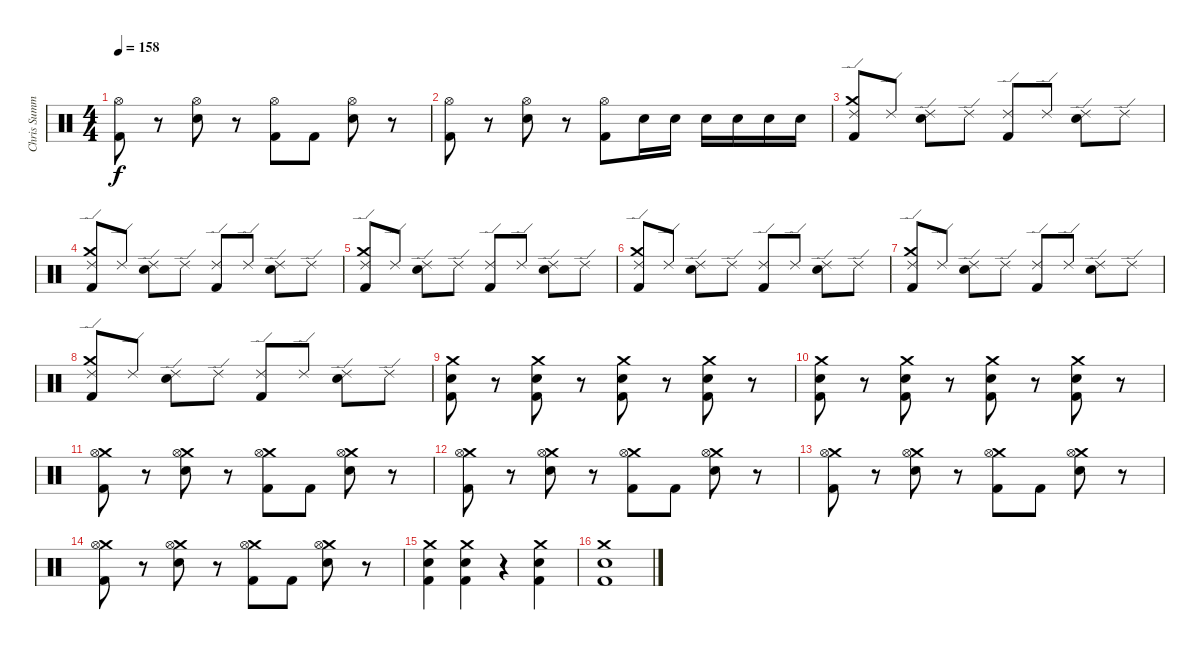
\track ("Chris Summers" "Chris Summ") {instrument percussion}
\staff {score}
\articulation defaults
\ts (4 4)
\tempo 158
\clef neutral
\ks c
("Hi-Hat (open)" "Kick (hit) 2").8{dy f} r.8 ("Hi-Hat (open)" "Electric Snare (hit)").8 r.8 ("Hi-Hat (open)" "Kick (hit) 2").8 "Kick (hit) 2".8 ("Hi-Hat (open)" "Electric Snare (hit)").8 r.8 |
("Hi-Hat (open)" "Kick (hit) 2").8 r.8 ("Hi-Hat (open)" "Electric Snare (hit)").8 r.8 ("Hi-Hat (open)" "Kick (hit) 2").8 "Electric Snare (hit)".16 "Electric Snare (hit)".16 "Electric Snare (hit)".16 "Electric Snare (hit)".16 "Electric Snare (hit)".16 "Electric Snare (hit)".16 |
("Crash medium (hit)" "Ride (edge) 2" "Kick (hit) 2").8 "Ride (edge) 2".8 ("Ride (edge) 2" "Electric Snare (hit)").8 "Ride (edge) 2".8 ("Ride (edge) 2" "Kick (hit) 2").8 "Ride (edge) 2".8 ("Ride (edge) 2" "Electric Snare (hit)").8 "Ride (edge) 2".8 |
("Crash medium (hit)" "Ride (edge) 2" "Kick (hit) 2").8 "Ride (edge) 2".8 ("Ride (edge) 2" "Electric Snare (hit)").8 "Ride (edge) 2".8 ("Ride (edge) 2" "Kick (hit) 2").8 "Ride (edge) 2".8 ("Ride (edge) 2" "Electric Snare (hit)").8 "Ride (edge) 2".8 |
("Crash medium (hit)" "Ride (edge) 2" "Kick (hit) 2").8 "Ride (edge) 2".8 ("Ride (edge) 2" "Electric Snare (hit)").8 "Ride (edge) 2".8 ("Ride (edge) 2" "Kick (hit) 2").8 "Ride (edge) 2".8 ("Ride (edge) 2" "Electric Snare (hit)").8 "Ride (edge) 2".8 |
("Crash medium (hit)" "Ride (edge) 2" "Kick (hit) 2").8 "Ride (edge) 2".8 ("Ride (edge) 2" "Electric Snare (hit)").8 "Ride (edge) 2".8 ("Ride (edge) 2" "Kick (hit) 2").8 "Ride (edge) 2".8 ("Ride (edge) 2" "Electric Snare (hit)").8 "Ride (edge) 2".8 |
("Crash medium (hit)" "Ride (edge) 2" "Kick (hit) 2").8 "Ride (edge) 2".8 ("Ride (edge) 2" "Electric Snare (hit)").8 "Ride (edge) 2".8 ("Ride (edge) 2" "Kick (hit) 2").8 "Ride (edge) 2".8 ("Ride (edge) 2" "Electric Snare (hit)").8 "Ride (edge) 2".8 |
("Crash medium (hit)" "Ride (edge) 2" "Kick (hit) 2").8 "Ride (edge) 2".8 ("Ride (edge) 2" "Electric Snare (hit)").8 "Ride (edge) 2".8 ("Ride (edge) 2" "Kick (hit) 2").8 "Ride (edge) 2".8 ("Ride (edge) 2" "Electric Snare (hit)").8 "Ride (edge) 2".8 |
("Kick (hit) 2" "Crash medium (hit)" "Electric Snare (hit)").8 r.8 ("Kick (hit) 2" "Crash medium (hit)" "Electric Snare (hit)").8 r.8 ("Kick (hit) 2" "Crash medium (hit)" "Electric Snare (hit)").8 r.8 ("Kick (hit) 2" "Crash medium (hit)" "Electric Snare (hit)").8 r.8 |
("Kick (hit) 2" "Crash medium (hit)" "Electric Snare (hit)").8 r.8 ("Kick (hit) 2" "Crash medium (hit)" "Electric Snare (hit)").8 r.8 ("Kick (hit) 2" "Crash medium (hit)" "Electric Snare (hit)").8 r.8 ("Kick (hit) 2" "Crash medium (hit)" "Electric Snare (hit)").8 r.8 |
("Crash medium (hit)" "Hi-Hat (open)" "Kick (hit) 2").8 r.8 ("Crash medium (hit)" "Hi-Hat (open)" "Electric Snare (hit)").8 r.8 ("Crash medium (hit)" "Hi-Hat (open)" "Kick (hit) 2").8 "Kick (hit) 2".8 ("Crash medium (hit)" "Hi-Hat (open)" "Electric Snare (hit)").8 r.8 |
("Crash medium (hit)" "Hi-Hat (open)" "Kick (hit) 2").8 r.8 ("Crash medium (hit)" "Hi-Hat (open)" "Electric Snare (hit)").8 r.8 ("Crash medium (hit)" "Hi-Hat (open)" "Kick (hit) 2").8 "Kick (hit) 2".8 ("Crash medium (hit)" "Hi-Hat (open)" "Electric Snare (hit)").8 r.8 |
("Crash medium (hit)" "Hi-Hat (open)" "Kick (hit) 2").8 r.8 ("Crash medium (hit)" "Hi-Hat (open)" "Electric Snare (hit)").8 r.8 ("Crash medium (hit)" "Hi-Hat (open)" "Kick (hit) 2").8 "Kick (hit) 2".8 ("Crash medium (hit)" "Hi-Hat (open)" "Electric Snare (hit)").8 r.8 |
("Crash medium (hit)" "Hi-Hat (open)" "Kick (hit) 2").8 r.8 ("Crash medium (hit)" "Hi-Hat (open)" "Electric Snare (hit)").8 r.8 ("Crash medium (hit)" "Hi-Hat (open)" "Kick (hit) 2").8 "Kick (hit) 2".8 ("Crash medium (hit)" "Hi-Hat (open)" "Electric Snare (hit)").8 r.8 |
("Crash medium (hit)" "Electric Snare (hit)" "Kick (hit) 2").4 ("Crash medium (hit)" "Electric Snare (hit)" "Kick (hit) 2").4 r.4 ("Crash medium (hit)" "Electric Snare (hit)" "Kick (hit) 2").4 |
("Crash medium (hit)" "Electric Snare (hit)" "Kick (hit) 2").1
